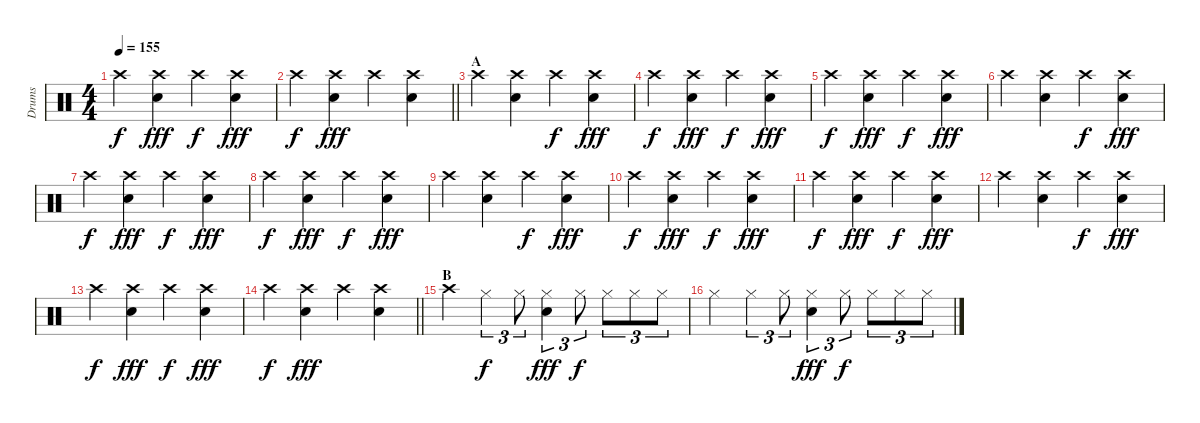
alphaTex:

\track ("Drums" "Drums") {instrument percussion}
\staff {score}
\articulation defaults
\ts (4 4)
\tempo 155
\clef neutral
\ks c "Crash high (hit)".4{dy f}
("Crash high (hit)" "Electric Snare (hit)").4{dy fff} "Crash high (hit)".4{dy f} ("Crash high (hit)" "Electric Snare (hit)").4{dy fff} |
\barLineRight lightlight "Crash high (hit)".4{dy f}
("Crash high (hit)" "Electric Snare (hit)").4{dy fff} "Crash high (hit)".4 ("Crash high (hit)" "Electric Snare (hit)").4 |
\section ("" "A")
"Crash high (hit)".4 ("Crash high (hit)" "Electric Snare (hit)").4 "Crash high (hit)".4{dy f} ("Crash high (hit)" "Electric Snare (hit)").4{dy fff} |
"Crash high (hit)".4{dy f} ("Crash high (hit)" "Electric Snare (hit)").4{dy fff} "Crash high (hit)".4{dy f} ("Crash high (hit)" "Electric Snare (hit)").4{dy fff} |
"Crash high (hit)".4{dy f} ("Crash high (hit)" "Electric Snare (hit)").4{dy fff} "Crash high (hit)".4{dy f} ("Crash high (hit)" "Electric Snare (hit)").4{dy fff} |
"Crash high (hit)".4 ("Crash high (hit)" "Electric Snare (hit)").4 "Crash high (hit)".4{dy f} ("Crash high (hit)" "Electric Snare (hit)").4{dy fff} |
"Crash high (hit)".4{dy f} ("Crash high (hit)" "Electric Snare (hit)").4{dy fff} "Crash high (hit)".4{dy f} ("Crash high (hit)" "Electric Snare (hit)").4{dy fff} |
"Crash high (hit)".4{dy f} ("Crash high (hit)" "Electric Snare (hit)").4{dy fff} "Crash high (hit)".4{dy f} ("Crash high (hit)" "Electric Snare (hit)").4{dy fff} |
"Crash high (hit)".4 ("Crash high (hit)" "Electric Snare (hit)").4 "Crash high (hit)".4{dy f} ("Crash high (hit)" "Electric Snare (hit)").4{dy fff} |
"Crash high (hit)".4{dy f} ("Crash high (hit)" "Electric Snare (hit)").4{dy fff} "Crash high (hit)".4{dy f} ("Crash high (hit)" "Electric Snare (hit)").4{dy fff} |
"Crash high (hit)".4{dy f} ("Crash high (hit)" "Electric Snare (hit)").4{dy fff} "Crash high (hit)".4{dy f} ("Crash high (hit)" "Electric Snare (hit)").4{dy fff} |
"Crash high (hit)".4 ("Crash high (hit)" "Electric Snare (hit)").4 "Crash high (hit)".4{dy f} ("Crash high (hit)" "Electric Snare (hit)").4{dy fff} |
"Crash high (hit)".4{dy f} ("Crash high (hit)" "Electric Snare (hit)").4{dy fff} "Crash high (hit)".4{dy f} ("Crash high (hit)" "Electric Snare (hit)").4{dy fff} |
\barLineRight lightlight "Crash high (hit)".4{dy f}
("Crash high (hit)" "Electric Snare (hit)").4{dy fff} "Crash high (hit)".4 ("Crash high (hit)" "Electric Snare (hit)").4 |
\section ("" "B")
"Crash high (hit)".4 "Hi-Hat (closed)".4{tu (3 2) dy f} "Hi-Hat (closed)".8{tu (3 2)} ("Hi-Hat (closed)" "Electric Snare (hit)").4{tu (3 2) dy fff} "Hi-Hat (closed)".8{tu (3 2) dy f} "Hi-Hat (closed)".8{tu (3 2)} "Hi-Hat (closed)".8{tu (3 2)} "Hi-Hat (closed)".8{tu (3 2)} |
"Hi-Hat (closed)".4 "Hi-Hat (closed)".4{tu (3 2)} "Hi-Hat (closed)".8{tu (3 2)} ("Hi-Hat (closed)" "Electric Snare (hit)").4{tu (3 2) dy fff} "Hi-Hat (closed)".8{tu (3 2) dy f} "Hi-Hat (closed)".8{tu (3 2)} "Hi-Hat (closed)".8{tu (3 2)} "Hi-Hat (closed)".8{tu (3 2)}
